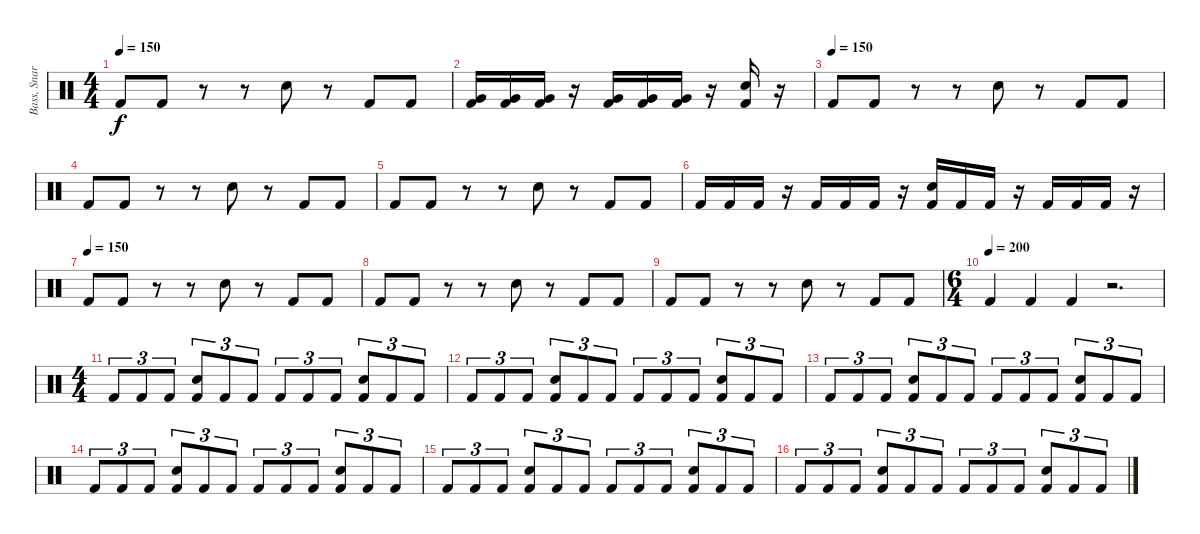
\track ("Bass, Snare & Toms" "Bass, Snar") {instrument percussion}
\staff {score}
\articulation defaults
\ts (4 4)
\tempo 150
\clef neutral
\ks c "Kick (hit) 2".8{dy f} "Kick (hit) 2".8
r.8 r.8 "Electric Snare (hit)".8 r.8 "Kick (hit) 2".8 "Kick (hit) 2".8 |
("Very Low Tom (hit)" "Kick (hit) 2").16 ("Very Low Tom (hit)" "Kick (hit) 2").16 ("Very Low Tom (hit)" "Kick (hit) 2").16 r.16 ("Very Low Tom (hit)" "Kick (hit) 2").16 ("Very Low Tom (hit)" "Kick (hit) 2").16 ("Very Low Tom (hit)" "Kick (hit) 2").16 r.16 ("Electric Snare (hit)" "Kick (hit) 2").16 r.16 |
\tempo (150)
"Kick (hit) 2".8 "Kick (hit) 2".8 r.8 r.8 "Electric Snare (hit)".8 r.8 "Kick (hit) 2".8 "Kick (hit) 2".8 |
"Kick (hit) 2".8 "Kick (hit) 2".8 r.8 r.8 "Electric Snare (hit)".8 r.8 "Kick (hit) 2".8 "Kick (hit) 2".8 |
"Kick (hit) 2".8 "Kick (hit) 2".8 r.8 r.8 "Electric Snare (hit)".8 r.8 "Kick (hit) 2".8 "Kick (hit) 2".8 |
"Kick (hit) 2".16 "Kick (hit) 2".16 "Kick (hit) 2".16 r.16 "Kick (hit) 2".16 "Kick (hit) 2".16 "Kick (hit) 2".16 r.16 ("Electric Snare (hit)" "Kick (hit) 2").16 "Kick (hit) 2".16 "Kick (hit) 2".16 r.16 "Kick (hit) 2".16 "Kick (hit) 2".16 "Kick (hit) 2".16 r.16 |
\tempo (150)
"Kick (hit) 2".8 "Kick (hit) 2".8 r.8 r.8 "Electric Snare (hit)".8 r.8 "Kick (hit) 2".8 "Kick (hit) 2".8 |
"Kick (hit) 2".8 "Kick (hit) 2".8 r.8 r.8 "Electric Snare (hit)".8 r.8 "Kick (hit) 2".8 "Kick (hit) 2".8 |
"Kick (hit) 2".8 "Kick (hit) 2".8 r.8 r.8 "Electric Snare (hit)".8 r.8 "Kick (hit) 2".8 "Kick (hit) 2".8 |
\ts (6 4)
\tempo (200)
"Kick (hit) 2".4 "Kick (hit) 2".4 "Kick (hit) 2".4 r.2{d} |
\ts (4 4)
"Kick (hit) 2".8{tu (3 2)} "Kick (hit) 2".8{tu (3 2)} "Kick (hit) 2".8{tu (3 2)} ("Electric Snare (hit)" "Kick (hit) 2").8{tu (3 2)} "Kick (hit) 2".8{tu (3 2)} "Kick (hit) 2".8{tu (3 2)} "Kick (hit) 2".8{tu (3 2)} "Kick (hit) 2".8{tu (3 2)} "Kick (hit) 2".8{tu (3 2)} ("Electric Snare (hit)" "Kick (hit) 2").8{tu (3 2)} "Kick (hit) 2".8{tu (3 2)} "Kick (hit) 2".8{tu (3 2)} |
"Kick (hit) 2".8{tu (3 2)} "Kick (hit) 2".8{tu (3 2)} "Kick (hit) 2".8{tu (3 2)} ("Electric Snare (hit)" "Kick (hit) 2").8{tu (3 2)} "Kick (hit) 2".8{tu (3 2)} "Kick (hit) 2".8{tu (3 2)} "Kick (hit) 2".8{tu (3 2)} "Kick (hit) 2".8{tu (3 2)} "Kick (hit) 2".8{tu (3 2)} ("Electric Snare (hit)" "Kick (hit) 2").8{tu (3 2)} "Kick (hit) 2".8{tu (3 2)} "Kick (hit) 2".8{tu (3 2)} |
"Kick (hit) 2".8{tu (3 2)} "Kick (hit) 2".8{tu (3 2)} "Kick (hit) 2".8{tu (3 2)} ("Electric Snare (hit)" "Kick (hit) 2").8{tu (3 2)} "Kick (hit) 2".8{tu (3 2)} "Kick (hit) 2".8{tu (3 2)} "Kick (hit) 2".8{tu (3 2)} "Kick (hit) 2".8{tu (3 2)} "Kick (hit) 2".8{tu (3 2)} ("Electric Snare (hit)" "Kick (hit) 2").8{tu (3 2)} "Kick (hit) 2".8{tu (3 2)} "Kick (hit) 2".8{tu (3 2)} |
"Kick (hit) 2".8{tu (3 2)} "Kick (hit) 2".8{tu (3 2)} "Kick (hit) 2".8{tu (3 2)} ("Electric Snare (hit)" "Kick (hit) 2").8{tu (3 2)} "Kick (hit) 2".8{tu (3 2)} "Kick (hit) 2".8{tu (3 2)} "Kick (hit) 2".8{tu (3 2)} "Kick (hit) 2".8{tu (3 2)} "Kick (hit) 2".8{tu (3 2)} ("Electric Snare (hit)" "Kick (hit) 2").8{tu (3 2)} "Kick (hit) 2".8{tu (3 2)} "Kick (hit) 2".8{tu (3 2)} |
"Kick (hit) 2".8{tu (3 2)} "Kick (hit) 2".8{tu (3 2)} "Kick (hit) 2".8{tu (3 2)} ("Electric Snare (hit)" "Kick (hit) 2").8{tu (3 2)} "Kick (hit) 2".8{tu (3 2)} "Kick (hit) 2".8{tu (3 2)} "Kick (hit) 2".8{tu (3 2)} "Kick (hit) 2".8{tu (3 2)} "Kick (hit) 2".8{tu (3 2)} ("Electric Snare (hit)" "Kick (hit) 2").8{tu (3 2)} "Kick (hit) 2".8{tu (3 2)} "Kick (hit) 2".8{tu (3 2)} |
"Kick (hit) 2".8{tu (3 2)} "Kick (hit) 2".8{tu (3 2)} "Kick (hit) 2".8{tu (3 2)} ("Electric Snare (hit)" "Kick (hit) 2").8{tu (3 2)} "Kick (hit) 2".8{tu (3 2)} "Kick (hit) 2".8{tu (3 2)} "Kick (hit) 2".8{tu (3 2)} "Kick (hit) 2".8{tu (3 2)} "Kick (hit) 2".8{tu (3 2)} ("Electric Snare (hit)" "Kick (hit) 2").8{tu (3 2)} "Kick (hit) 2".8{tu (3 2)} "Kick (hit) 2".8{tu (3 2)}
